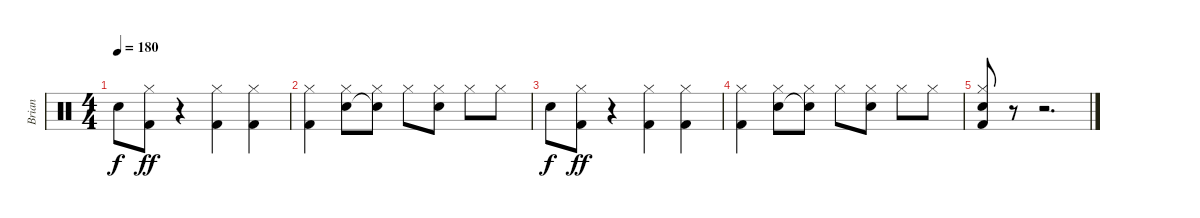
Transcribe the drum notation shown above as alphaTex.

\track ("Brian" "Brian") {instrument percussion}
\staff {score}
\articulation defaults
\ts (4 4)
\tempo 180
\clef neutral
\ks c "Snare (hit) 2".8{dy f}
("Hi-Hat (closed)" "Kick (hit) 2").8{dy ff} r.4 ("Hi-Hat (closed)" "Kick (hit) 2").4 ("Hi-Hat (closed)" "Kick (hit) 2").4 |
("Hi-Hat (closed)" "Kick (hit) 2").4 ("Hi-Hat (closed)" "Snare (hit) 2").8 ("Hi-Hat (closed)" "Electric Snare (hit)"{t}).8 "Hi-Hat (closed)".8 ("Hi-Hat (closed)" "Snare (hit) 2").8 "Hi-Hat (closed)".8 "Hi-Hat (closed)".8 |
"Snare (hit) 2".8{dy f} ("Hi-Hat (closed)" "Kick (hit) 2").8{dy ff} r.4 ("Hi-Hat (closed)" "Kick (hit) 2").4 ("Hi-Hat (closed)" "Kick (hit) 2").4 |
("Hi-Hat (closed)" "Kick (hit) 2").4 ("Hi-Hat (closed)" "Snare (hit) 2").8 ("Hi-Hat (closed)" "Electric Snare (hit)"{t}).8 "Hi-Hat (closed)".8 ("Hi-Hat (closed)" "Snare (hit) 2").8 "Hi-Hat (closed)".8 "Hi-Hat (closed)".8 |
("Hi-Hat (closed)" "Snare (hit) 2" "Kick (hit) 2").8 r.8 r.2{d}
